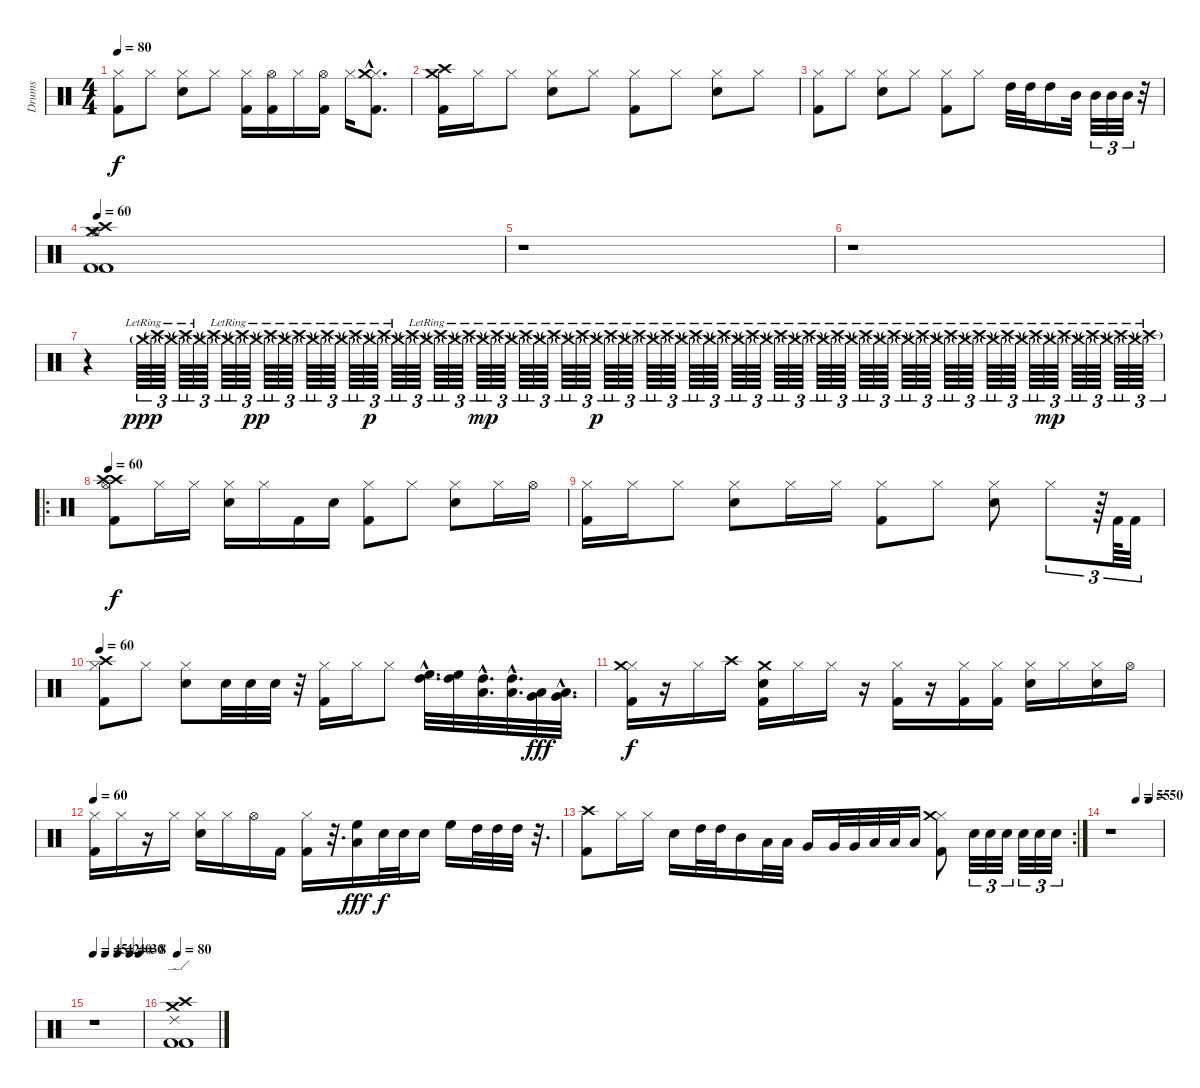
\track ("Drums" "Drums") {instrument percussion}
\staff {score}
\articulation defaults
\ts (4 4)
\tempo 80
\clef neutral
\ks c
("Hi-Hat (closed)" "Kick (hit) 2").8{dy f} "Hi-Hat (closed)".8 ("Hi-Hat (closed)" "Snare (hit) 2").8 "Hi-Hat (closed)".8 ("Kick (hit) 2" "Hi-Hat (closed)").16 ("Hi-Hat (open)" "Kick (hit) 2").16 "Hi-Hat (closed)".16 ("Hi-Hat (open)" "Kick (hit) 2").16 "Hi-Hat (closed)".16 ("Hi-Hat (closed)"{hac} "Crash medium (hit)"{hac} "Kick (hit) 2"{hac}).8{d} |
("Crash medium (hit)" "Kick (hit) 2" "Crash high (hit)").16 "Hi-Hat (closed)".16 "Hi-Hat (closed)".8 ("Hi-Hat (closed)" "Snare (hit) 2").8 "Hi-Hat (closed)".8 ("Hi-Hat (closed)" "Kick (hit) 2").8 "Hi-Hat (closed)".8 ("Hi-Hat (closed)" "Snare (hit) 2").8 "Hi-Hat (closed)".8 |
("Hi-Hat (closed)" "Kick (hit) 2").8 "Hi-Hat (closed)".8 ("Hi-Hat (closed)" "Snare (hit) 2").8 "Hi-Hat (closed)".8 ("Kick (hit) 2" "Hi-Hat (closed)").8 "Hi-Hat (closed)".8 "High Tom (hit)".32 "High Tom (hit)".32 "High Tom (hit)".16 "Mid Tom (hit)".32 "Mid Tom (hit)".32{tu (3 2)} "Mid Tom (hit)".32{tu (3 2)} "Mid Tom (hit)".32{tu (3 2)} r.32 |
\tempo 60
("Crash medium (hit)" "Hi-Hat (open)" "Crash high (hit)" "Kick (hit) 2" "Kick (hit) 2").1 |
r.1 |
r.1 |
r.4 "Crash medium (hit)"{g lr}.64{tu (3 2) dy ppp balance 0} "Crash high (hit)"{g lr}.64{tu (3 2)} "Crash medium (hit)"{g lr}.64{tu (3 2)} "Crash high (hit)"{g lr}.64{tu (3 2)} "Crash medium (hit)"{g lr}.64{tu (3 2) balance 1} "Crash high (hit)"{g}.64{tu (3 2)} "Crash medium (hit)"{g lr}.64{tu (3 2)} "Crash high (hit)"{g lr}.64{tu (3 2)} "Crash medium (hit)"{g lr}.64{tu (3 2) dy pp balance 2} "Crash high (hit)"{g lr}.64{tu (3 2)} "Crash medium (hit)"{g lr}.64{tu (3 2)} "Crash high (hit)"{g lr}.64{tu (3 2)} "Crash medium (hit)"{g lr}.64{tu (3 2) balance 3} "Crash high (hit)"{g lr}.64{tu (3 2)} "Crash medium (hit)"{g lr}.64{tu (3 2)} "Crash high (hit)"{g lr}.64{tu (3 2)} "Crash medium (hit)"{g lr}.64{tu (3 2) dy p balance 4} "Crash high (hit)"{g lr}.64{tu (3 2)} "Crash medium (hit)"{g lr}.64{tu (3 2)} "Crash high (hit)"{g}.64{tu (3 2)} "Crash medium (hit)"{g lr}.64{tu (3 2) balance 5} "Crash high (hit)"{g lr}.64{tu (3 2)} "Crash medium (hit)"{g lr}.64{tu (3 2)} "Crash high (hit)"{g lr}.64{tu (3 2)} "Crash medium (hit)"{g lr}.64{tu (3 2) dy mp balance 6} "Crash high (hit)"{g lr}.64{tu (3 2)} "Crash medium (hit)"{g lr}.64{tu (3 2)} "Crash high (hit)"{g lr}.64{tu (3 2)} "Crash medium (hit)"{g lr}.64{tu (3 2) balance 7} "Crash high (hit)"{g lr}.64{tu (3 2)} "Crash medium (hit)"{g lr}.64{tu (3 2)} "Crash high (hit)"{g lr}.64{tu (3 2)} "Crash medium (hit)"{g lr}.64{tu (3 2) dy p balance 8} "Crash high (hit)"{g lr}.64{tu (3 2)} "Crash medium (hit)"{g lr}.64{tu (3 2)} "Crash high (hit)"{g lr}.64{tu (3 2)} "Crash medium (hit)"{g lr}.64{tu (3 2) balance 9} "Crash high (hit)"{g lr}.64{tu (3 2)} "Crash medium (hit)"{g lr}.64{tu (3 2)} "Crash high (hit)"{g lr}.64{tu (3 2)} "Crash medium (hit)"{g lr}.64{tu (3 2) balance 10} "Crash high (hit)"{g lr}.64{tu (3 2)} "Crash medium (hit)"{g lr}.64{tu (3 2)} "Crash high (hit)"{g lr}.64{tu (3 2)} "Crash medium (hit)"{g lr}.64{tu (3 2) balance 11} "Crash high (hit)"{g lr}.64{tu (3 2)} "Crash medium (hit)"{g lr}.64{tu (3 2)} "Crash high (hit)"{g lr}.64{tu (3 2)} "Crash medium (hit)"{g lr}.64{tu (3 2) balance 12} "Crash high (hit)"{g lr}.64{tu (3 2)} "Crash medium (hit)"{g lr}.64{tu (3 2)} "Crash high (hit)"{g lr}.64{tu (3 2)} "Crash medium (hit)"{g lr}.64{tu (3 2) balance 13} "Crash high (hit)"{g lr}.64{tu (3 2)} "Crash medium (hit)"{g lr}.64{tu (3 2)} "Crash high (hit)"{g lr}.64{tu (3 2)} "Crash medium (hit)"{g lr}.64{tu (3 2) balance 14} "Crash high (hit)"{g lr}.64{tu (3 2)} "Crash medium (hit)"{g lr}.64{tu (3 2)} "Crash high (hit)"{g lr}.64{tu (3 2)} "Crash medium (hit)"{g lr}.64{tu (3 2) balance 15} "Crash high (hit)"{g lr}.64{tu (3 2)} "Crash medium (hit)"{g lr}.64{tu (3 2)} "Crash high (hit)"{g lr}.64{tu (3 2)} "Crash medium (hit)"{g lr}.64{tu (3 2) dy mp balance 16} "Crash high (hit)"{g lr}.64{tu (3 2)} "Crash medium (hit)"{g lr}.64{tu (3 2)} "Crash high (hit)"{g lr}.64{tu (3 2)} "Crash medium (hit)"{g lr}.64{tu (3 2) balance 8} "Crash high (hit)"{g lr}.64{tu (3 2)} "Crash medium (hit)"{g lr}.64{tu (3 2)} "Crash high (hit)"{g lr}.64{tu (3 2)} |
\ro
\tempo 60
("Crash high (hit)" "Crash high (hit)" "Kick (hit) 2" "Hi-Hat (open)").8{dy f} "Hi-Hat (closed)".16 "Hi-Hat (closed)".16 ("Hi-Hat (closed)" "Snare (hit) 2").16 "Hi-Hat (closed)".16 "Kick (hit) 2".16 "Snare (hit) 2".16 ("Hi-Hat (closed)" "Kick (hit) 2").8 "Hi-Hat (closed)".8 ("Hi-Hat (closed)" "Snare (hit) 2").8 "Hi-Hat (closed)".16 "Hi-Hat (open)".16 |
("Hi-Hat (closed)" "Kick (hit) 2").16 "Hi-Hat (closed)".16 "Hi-Hat (closed)".8 ("Hi-Hat (closed)" "Snare (hit) 2").8 "Hi-Hat (closed)".16 "Hi-Hat (closed)".16 ("Hi-Hat (closed)" "Kick (hit) 2").8 "Hi-Hat (closed)".8 ("Hi-Hat (closed)" "Snare (hit) 2").8 "Hi-Hat (closed)".8{tu (3 2)} r.64{tu (3 2)} "Kick (hit) 2".64{tu (3 2)} "Kick (hit) 2".32{tu (3 2)} |
\tempo 60
("Hi-Hat (closed)" "Crash high (hit)" "Kick (hit) 2").8 "Hi-Hat (closed)".8 ("Hi-Hat (closed)" "Snare (hit) 2").8 "Snare (hit) 2".32 "Snare (hit) 2".32 "Snare (hit) 2".32 r.32 ("Hi-Hat (closed)" "Kick (hit) 2").16 "Hi-Hat (closed)".16 "Hi-Hat (closed)".8 ("High Tom (hit)"{hac} "High Floor Tom (hit)"{hac}).32{d} ("High Tom (hit)" "High Floor Tom (hit)").32 ("Low Tom (hit)"{hac} "High Tom (hit)"{hac}).32{d} ("Low Tom (hit)"{hac} "High Tom (hit)"{hac}).32{d} ("Very Low Tom (hit)" "Low Tom (hit)").32{dy fff} ("Very Low Tom (hit)"{hac} "Low Tom (hit)"{hac}).32{d} |
("Hi-Hat (closed)" "Kick (hit) 2" "Crash medium (hit)").16{dy f} r.16 "Hi-Hat (closed)".16 "Crash high (hit)".16 ("Crash medium (hit)" "Kick (hit) 2" "Snare (hit) 2").16 "Hi-Hat (closed)".16 "Hi-Hat (closed)".16 r.16 ("Hi-Hat (closed)" "Kick (hit) 2").16 r.16 ("Hi-Hat (closed)" "Kick (hit) 2").16 ("Hi-Hat (closed)" "Kick (hit) 2").16 ("Hi-Hat (closed)" "Snare (hit) 2").16 "Hi-Hat (closed)".16 ("Hi-Hat (closed)" "Snare (hit) 2").16 "Hi-Hat (open)".16 |
\tempo 60
("Hi-Hat (closed)" "Kick (hit) 2").16 "Hi-Hat (closed)".16 r.16 "Hi-Hat (closed)".16 ("Hi-Hat (closed)" "Snare (hit) 2").16 "Hi-Hat (closed)".16 "Hi-Hat (open)".16 "Kick (hit) 2".16 ("Hi-Hat (closed)" "Kick (hit) 2").16 r.32{d} ("High Floor Tom (hit)" "Low Tom (hit)").16{dy fff} "Snare (hit) 2".32{dy f} "Snare (hit) 2".32 "Snare (hit) 2".16 "High Floor Tom (hit)".16 "High Tom (hit)".32 "High Tom (hit)".32 "High Tom (hit)".32 r.32{d} |
\rc 2
("Crash high (hit)" "Kick (hit) 2").8 "Hi-Hat (closed)".16 "Hi-Hat (closed)".16 "Snare (hit) 2".16 "High Tom (hit)".32 "High Tom (hit)".32 "Mid Tom (hit)".16 "Low Tom (hit)".32 "Low Tom (hit)".32 "Very Low Tom (hit)".16 "Very Low Tom (hit)".32 "Very Low Tom (hit)".32 "Low Floor Tom (hit)".32 "Low Floor Tom (hit)".32 "Low Floor Tom (hit)".16 ("Hi-Hat (closed)" "Kick (hit) 2" "Crash medium (hit)").8 "Snare (hit) 2".32{tu (3 2)} "Snare (hit) 2".32{tu (3 2)} "Snare (hit) 2".32{tu (3 2)} "Snare (hit) 2".32{tu (3 2)} "Snare (hit) 2".32{tu (3 2)} "Snare (hit) 2".32{tu (3 2)} |
\tempo (55 0.5)
\tempo (50 0.75)
r.1 |
\tempo 45
\tempo (42 0.25)
\tempo (40 0.5)
\tempo (30 0.75)
\tempo (8 0.9375)
r.1 |
\tempo 80
("Ride (edge) 2" "Crash high (hit)" "Crash medium (hit)" "Kick (hit) 2" "Kick (hit) 2").1
